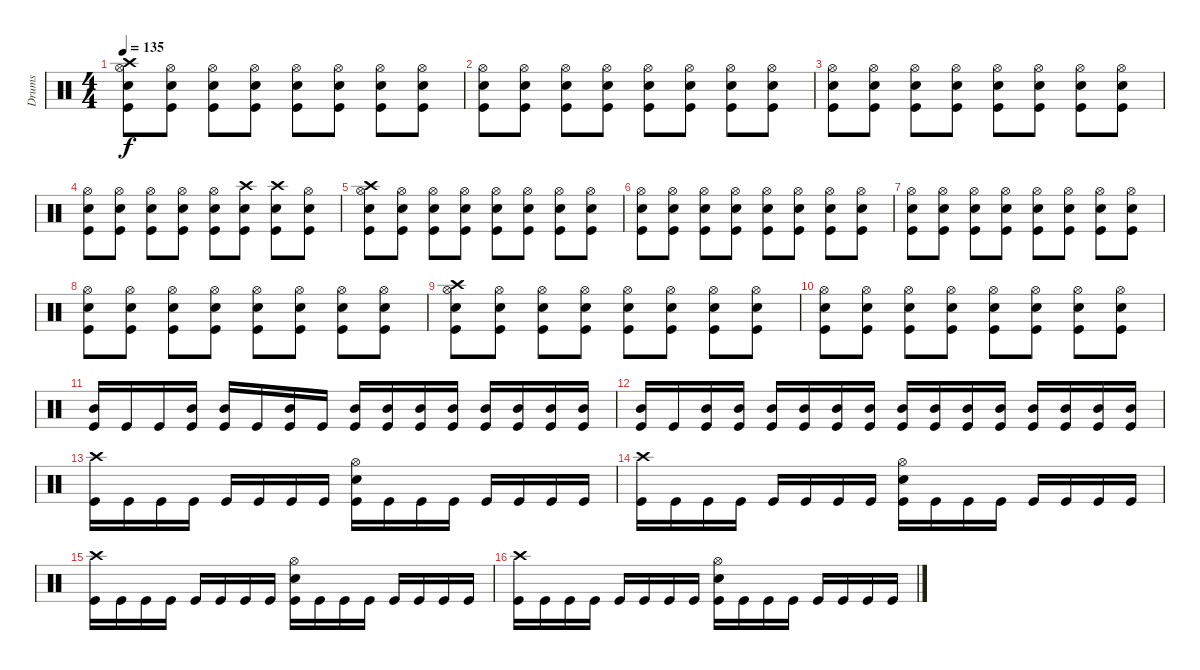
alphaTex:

\track ("Drums" "Drums") {instrument percussion}
\staff {score}
\articulation defaults
\ts (4 4)
\tempo 135
\clef neutral
\ks c
("Crash high (hit)" "Hi-Hat (open)" "Electric Snare (hit)" "Kick (hit)").8{dy f} ("Hi-Hat (open)" "Electric Snare (hit)" "Kick (hit)").8 ("Hi-Hat (open)" "Electric Snare (hit)" "Kick (hit)").8 ("Hi-Hat (open)" "Electric Snare (hit)" "Kick (hit)").8 ("Hi-Hat (open)" "Electric Snare (hit)" "Kick (hit)").8 ("Hi-Hat (open)" "Electric Snare (hit)" "Kick (hit)").8 ("Hi-Hat (open)" "Electric Snare (hit)" "Kick (hit)").8 ("Hi-Hat (open)" "Electric Snare (hit)" "Kick (hit)").8 |
("Hi-Hat (open)" "Electric Snare (hit)" "Kick (hit)").8 ("Hi-Hat (open)" "Electric Snare (hit)" "Kick (hit)").8 ("Hi-Hat (open)" "Electric Snare (hit)" "Kick (hit)").8 ("Hi-Hat (open)" "Electric Snare (hit)" "Kick (hit)").8 ("Hi-Hat (open)" "Electric Snare (hit)" "Kick (hit)").8 ("Hi-Hat (open)" "Electric Snare (hit)" "Kick (hit)").8 ("Hi-Hat (open)" "Electric Snare (hit)" "Kick (hit)").8 ("Hi-Hat (open)" "Electric Snare (hit)" "Kick (hit)").8 |
("Hi-Hat (open)" "Electric Snare (hit)" "Kick (hit)").8 ("Hi-Hat (open)" "Electric Snare (hit)" "Kick (hit)").8 ("Hi-Hat (open)" "Electric Snare (hit)" "Kick (hit)").8 ("Hi-Hat (open)" "Electric Snare (hit)" "Kick (hit)").8 ("Hi-Hat (open)" "Electric Snare (hit)" "Kick (hit)").8 ("Hi-Hat (open)" "Electric Snare (hit)" "Kick (hit)").8 ("Hi-Hat (open)" "Electric Snare (hit)" "Kick (hit)").8 ("Hi-Hat (open)" "Electric Snare (hit)" "Kick (hit)").8 |
("Hi-Hat (open)" "Electric Snare (hit)" "Kick (hit)").8 ("Hi-Hat (open)" "Electric Snare (hit)" "Kick (hit)").8 ("Hi-Hat (open)" "Electric Snare (hit)" "Kick (hit)").8 ("Hi-Hat (open)" "Electric Snare (hit)" "Kick (hit)").8 ("Hi-Hat (open)" "Electric Snare (hit)" "Kick (hit)").8 ("Crash high (hit)" "Electric Snare (hit)" "Kick (hit)").8 ("Crash high (hit)" "Electric Snare (hit)" "Kick (hit)").8 ("Hi-Hat (open)" "Electric Snare (hit)" "Kick (hit)").8 |
("Crash high (hit)" "Hi-Hat (open)" "Electric Snare (hit)" "Kick (hit)").8 ("Hi-Hat (open)" "Electric Snare (hit)" "Kick (hit)").8 ("Hi-Hat (open)" "Electric Snare (hit)" "Kick (hit)").8 ("Hi-Hat (open)" "Electric Snare (hit)" "Kick (hit)").8 ("Hi-Hat (open)" "Electric Snare (hit)" "Kick (hit)").8 ("Hi-Hat (open)" "Electric Snare (hit)" "Kick (hit)").8 ("Hi-Hat (open)" "Electric Snare (hit)" "Kick (hit)").8 ("Hi-Hat (open)" "Electric Snare (hit)" "Kick (hit)").8 |
("Hi-Hat (open)" "Electric Snare (hit)" "Kick (hit)").8 ("Hi-Hat (open)" "Electric Snare (hit)" "Kick (hit)").8 ("Hi-Hat (open)" "Electric Snare (hit)" "Kick (hit)").8 ("Hi-Hat (open)" "Electric Snare (hit)" "Kick (hit)").8 ("Hi-Hat (open)" "Electric Snare (hit)" "Kick (hit)").8 ("Hi-Hat (open)" "Electric Snare (hit)" "Kick (hit)").8 ("Hi-Hat (open)" "Electric Snare (hit)" "Kick (hit)").8 ("Hi-Hat (open)" "Electric Snare (hit)" "Kick (hit)").8 |
("Hi-Hat (open)" "Electric Snare (hit)" "Kick (hit)").8 ("Hi-Hat (open)" "Electric Snare (hit)" "Kick (hit)").8 ("Hi-Hat (open)" "Electric Snare (hit)" "Kick (hit)").8 ("Hi-Hat (open)" "Electric Snare (hit)" "Kick (hit)").8 ("Hi-Hat (open)" "Electric Snare (hit)" "Kick (hit)").8 ("Hi-Hat (open)" "Electric Snare (hit)" "Kick (hit)").8 ("Hi-Hat (open)" "Electric Snare (hit)" "Kick (hit)").8 ("Hi-Hat (open)" "Electric Snare (hit)" "Kick (hit)").8 |
("Hi-Hat (open)" "Electric Snare (hit)" "Kick (hit)").8 ("Hi-Hat (open)" "Electric Snare (hit)" "Kick (hit)").8 ("Hi-Hat (open)" "Electric Snare (hit)" "Kick (hit)").8 ("Hi-Hat (open)" "Electric Snare (hit)" "Kick (hit)").8 ("Hi-Hat (open)" "Electric Snare (hit)" "Kick (hit)").8 ("Hi-Hat (open)" "Electric Snare (hit)" "Kick (hit)").8 ("Hi-Hat (open)" "Electric Snare (hit)" "Kick (hit)").8 ("Hi-Hat (open)" "Electric Snare (hit)" "Kick (hit)").8 |
("Crash high (hit)" "Hi-Hat (open)" "Electric Snare (hit)" "Kick (hit)").8 ("Hi-Hat (open)" "Electric Snare (hit)" "Kick (hit)").8 ("Hi-Hat (open)" "Electric Snare (hit)" "Kick (hit)").8 ("Hi-Hat (open)" "Electric Snare (hit)" "Kick (hit)").8 ("Hi-Hat (open)" "Electric Snare (hit)" "Kick (hit)").8 ("Hi-Hat (open)" "Electric Snare (hit)" "Kick (hit)").8 ("Hi-Hat (open)" "Electric Snare (hit)" "Kick (hit)").8 ("Hi-Hat (open)" "Electric Snare (hit)" "Kick (hit)").8 |
("Hi-Hat (open)" "Electric Snare (hit)" "Kick (hit)").8 ("Hi-Hat (open)" "Electric Snare (hit)" "Kick (hit)").8 ("Hi-Hat (open)" "Electric Snare (hit)" "Kick (hit)").8 ("Hi-Hat (open)" "Electric Snare (hit)" "Kick (hit)").8 ("Hi-Hat (open)" "Electric Snare (hit)" "Kick (hit)").8 ("Hi-Hat (open)" "Electric Snare (hit)" "Kick (hit)").8 ("Hi-Hat (open)" "Electric Snare (hit)" "Kick (hit)").8 ("Hi-Hat (open)" "Electric Snare (hit)" "Kick (hit)").8 |
("Mid Tom (hit)" "Kick (hit)").16 "Kick (hit)".16 "Kick (hit)".16 ("Mid Tom (hit)" "Kick (hit)").16 ("Mid Tom (hit)" "Kick (hit)").16 "Kick (hit)".16 ("Mid Tom (hit)" "Kick (hit)").16 "Kick (hit)".16 ("Mid Tom (hit)" "Kick (hit)").16 ("Mid Tom (hit)" "Kick (hit)").16 ("Mid Tom (hit)" "Kick (hit)").16 ("Mid Tom (hit)" "Kick (hit)").16 ("Mid Tom (hit)" "Kick (hit)").16 ("Mid Tom (hit)" "Kick (hit)").16 ("Mid Tom (hit)" "Kick (hit)").16 ("Mid Tom (hit)" "Kick (hit)").16 |
("Mid Tom (hit)" "Kick (hit)").16 "Kick (hit)".16 ("Mid Tom (hit)" "Kick (hit)").16 ("Mid Tom (hit)" "Kick (hit)").16 ("Mid Tom (hit)" "Kick (hit)").16 ("Mid Tom (hit)" "Kick (hit)").16 ("Mid Tom (hit)" "Kick (hit)").16 ("Mid Tom (hit)" "Kick (hit)").16 ("Mid Tom (hit)" "Kick (hit)").16 ("Mid Tom (hit)" "Kick (hit)").16 ("Mid Tom (hit)" "Kick (hit)").16 ("Mid Tom (hit)" "Kick (hit)").16 ("Mid Tom (hit)" "Kick (hit)").16 ("Mid Tom (hit)" "Kick (hit)").16 ("Mid Tom (hit)" "Kick (hit)").16 ("Mid Tom (hit)" "Kick (hit)").16 |
("Crash high (hit)" "Kick (hit)").16 "Kick (hit)".16 "Kick (hit)".16 "Kick (hit)".16 "Kick (hit)".16 "Kick (hit)".16 "Kick (hit)".16 "Kick (hit)".16 ("Hi-Hat (open)" "Electric Snare (hit)" "Kick (hit)").16 "Kick (hit)".16 "Kick (hit)".16 "Kick (hit)".16 "Kick (hit)".16 "Kick (hit)".16 "Kick (hit)".16 "Kick (hit)".16 |
("Crash high (hit)" "Kick (hit)").16 "Kick (hit)".16 "Kick (hit)".16 "Kick (hit)".16 "Kick (hit)".16 "Kick (hit)".16 "Kick (hit)".16 "Kick (hit)".16 ("Hi-Hat (open)" "Electric Snare (hit)" "Kick (hit)").16 "Kick (hit)".16 "Kick (hit)".16 "Kick (hit)".16 "Kick (hit)".16 "Kick (hit)".16 "Kick (hit)".16 "Kick (hit)".16 |
("Crash high (hit)" "Kick (hit)").16 "Kick (hit)".16 "Kick (hit)".16 "Kick (hit)".16 "Kick (hit)".16 "Kick (hit)".16 "Kick (hit)".16 "Kick (hit)".16 ("Hi-Hat (open)" "Electric Snare (hit)" "Kick (hit)").16 "Kick (hit)".16 "Kick (hit)".16 "Kick (hit)".16 "Kick (hit)".16 "Kick (hit)".16 "Kick (hit)".16 "Kick (hit)".16 |
("Crash high (hit)" "Kick (hit)").16 "Kick (hit)".16 "Kick (hit)".16 "Kick (hit)".16 "Kick (hit)".16 "Kick (hit)".16 "Kick (hit)".16 "Kick (hit)".16 ("Hi-Hat (open)" "Electric Snare (hit)" "Kick (hit)").16 "Kick (hit)".16 "Kick (hit)".16 "Kick (hit)".16 "Kick (hit)".16 "Kick (hit)".16 "Kick (hit)".16 "Kick (hit)".16
